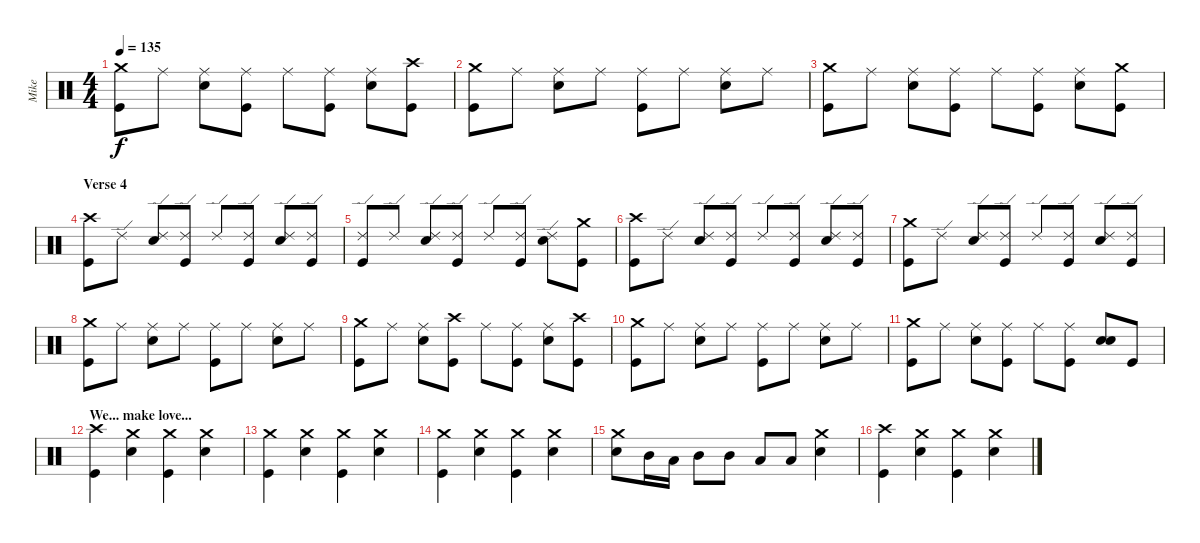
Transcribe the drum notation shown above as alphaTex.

\track ("Mike" "Mike") {instrument percussion}
\staff {score}
\articulation defaults
\ts (4 4)
\tempo 135
\clef neutral
\ks c
("Crash medium (hit)" "Kick (hit)").8{dy f} "Ride (middle)".8 ("Ride (middle)" "Electric Snare (hit)").8 ("Ride (middle)" "Kick (hit)").8 "Ride (middle)".8 ("Ride (middle)" "Kick (hit)").8 ("Ride (middle)" "Electric Snare (hit)").8 ("Crash high (hit)" "Kick (hit)").8 |
("Crash medium (hit)" "Kick (hit)").8 "Ride (middle)".8 ("Ride (middle)" "Electric Snare (hit)").8 "Ride (middle)".8 ("Ride (middle)" "Kick (hit)").8 "Ride (middle)".8 ("Ride (middle)" "Electric Snare (hit)").8 "Ride (middle)".8 |
("Crash medium (hit)" "Kick (hit)").8 "Ride (middle)".8 ("Ride (middle)" "Electric Snare (hit)").8 ("Ride (middle)" "Kick (hit)").8 "Ride (middle)".8 ("Ride (middle)" "Kick (hit)").8 ("Ride (middle)" "Electric Snare (hit)").8 ("Crash medium (hit)" "Kick (hit)").8 |
\section ("" "Verse 4")
("Crash high (hit)" "Kick (hit)").8 "Ride (edge) 2".8 ("Ride (edge) 2" "Electric Snare (hit)").8 ("Ride (edge) 2" "Kick (hit)").8 "Ride (edge) 2".8 ("Ride (edge) 2" "Kick (hit)").8 ("Ride (edge) 2" "Electric Snare (hit)").8 ("Ride (edge) 2" "Kick (hit)").8 |
("Ride (edge) 2" "Kick (hit)").8 "Ride (edge) 2".8 ("Ride (edge) 2" "Electric Snare (hit)").8 ("Ride (edge) 2" "Kick (hit)").8 "Ride (edge) 2".8 ("Ride (edge) 2" "Kick (hit)").8 ("Ride (edge) 2" "Electric Snare (hit)").8 ("Crash medium (hit)" "Kick (hit)").8 |
("Crash high (hit)" "Kick (hit)").8 "Ride (edge) 2".8 ("Ride (edge) 2" "Electric Snare (hit)").8 ("Ride (edge) 2" "Kick (hit)").8 "Ride (edge) 2".8 ("Ride (edge) 2" "Kick (hit)").8 ("Ride (edge) 2" "Electric Snare (hit)").8 ("Ride (edge) 2" "Kick (hit)").8 |
("Crash medium (hit)" "Kick (hit)").8 "Ride (edge) 2".8 ("Ride (edge) 2" "Electric Snare (hit)").8 ("Ride (edge) 2" "Kick (hit)").8 "Ride (edge) 2".8 ("Ride (edge) 2" "Kick (hit)").8 ("Ride (edge) 2" "Electric Snare (hit)").8 ("Ride (edge) 2" "Kick (hit)").8 |
("Crash medium (hit)" "Kick (hit)").8 "Ride (middle)".8 ("Ride (middle)" "Electric Snare (hit)").8 "Ride (middle)".8 ("Ride (middle)" "Kick (hit)").8 "Ride (middle)".8 ("Ride (middle)" "Electric Snare (hit)").8 "Ride (middle)".8 |
("Crash medium (hit)" "Kick (hit)").8 "Ride (middle)".8 ("Ride (middle)" "Electric Snare (hit)").8 ("Crash high (hit)" "Kick (hit)").8 "Ride (middle)".8 ("Ride (middle)" "Kick (hit)").8 ("Ride (middle)" "Electric Snare (hit)").8 ("Crash high (hit)" "Kick (hit)").8 |
("Crash medium (hit)" "Kick (hit)").8 "Ride (middle)".8 ("Ride (middle)" "Electric Snare (hit)").8 "Ride (middle)".8 ("Ride (middle)" "Kick (hit)").8 "Ride (middle)".8 ("Ride (middle)" "Electric Snare (hit)").8 "Ride (middle)".8 |
("Crash medium (hit)" "Kick (hit)").8 "Ride (middle)".8 ("Ride (middle)" "Electric Snare (hit)").8 ("Ride (middle)" "Kick (hit)").8 "Ride (middle)".8 ("Ride (middle)" "Kick (hit)").8 ("Electric Snare (hit)" "Electric Snare (hit)").8{bu 240} "Kick (hit)".8 |
\section ("" "We... make love...")
("Crash high (hit)" "Kick (hit)").4 ("Crash medium (hit)" "Electric Snare (hit)").4 ("Crash medium (hit)" "Kick (hit)").4 ("Crash medium (hit)" "Electric Snare (hit)").4 |
("Crash medium (hit)" "Kick (hit)").4 ("Crash medium (hit)" "Electric Snare (hit)").4 ("Crash medium (hit)" "Kick (hit)").4 ("Crash medium (hit)" "Electric Snare (hit)").4 |
("Crash medium (hit)" "Kick (hit)").4 ("Crash medium (hit)" "Electric Snare (hit)").4 ("Crash medium (hit)" "Kick (hit)").4 ("Crash medium (hit)" "Electric Snare (hit)").4 |
("Crash medium (hit)" "Electric Snare (hit)").8 "Mid Tom (hit)".16 "Low Tom (hit)".16 "Mid Tom (hit)".8 "Mid Tom (hit)".8 "Low Tom (hit)".8 "Low Tom (hit)".8 ("Crash medium (hit)" "Electric Snare (hit)").4 |
("Crash high (hit)" "Kick (hit)").4 ("Crash medium (hit)" "Electric Snare (hit)").4 ("Crash medium (hit)" "Kick (hit)").4 ("Crash medium (hit)" "Electric Snare (hit)").4
